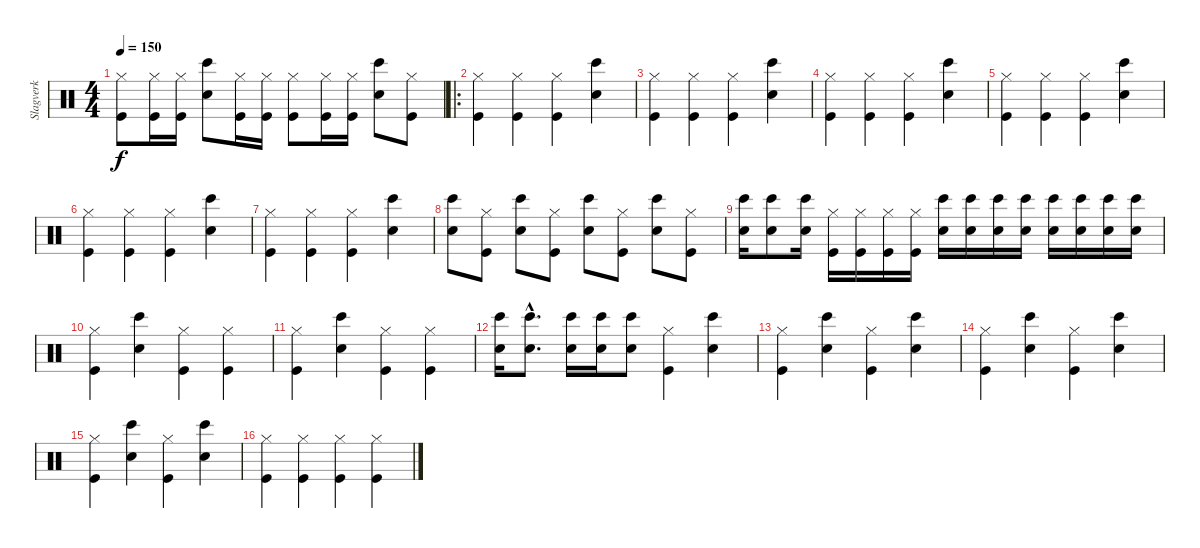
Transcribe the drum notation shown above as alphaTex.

\track ("Slagverk" "Slagverk") {instrument percussion}
\staff {score}
\articulation defaults
\ts (4 4)
\tempo 150
\clef neutral
\ks c
("Hi-Hat (closed)" "Kick (hit)").8{dy f} ("Hi-Hat (closed)" "Kick (hit)").16 ("Hi-Hat (closed)" "Kick (hit)").16 ("Snare (hit) 2" "Bongo High (hit)").8 ("Hi-Hat (closed)" "Kick (hit)").16 ("Hi-Hat (closed)" "Kick (hit)").16 ("Hi-Hat (closed)" "Kick (hit)").8 ("Hi-Hat (closed)" "Kick (hit)").16 ("Hi-Hat (closed)" "Kick (hit)").16 ("Snare (hit) 2" "Bongo High (hit)").8 ("Hi-Hat (closed)" "Kick (hit)").8 |
\ro
("Hi-Hat (closed)" "Kick (hit)").4 ("Hi-Hat (closed)" "Kick (hit)").4 ("Hi-Hat (closed)" "Kick (hit)").4 ("Snare (hit) 2" "Bongo High (hit)").4 |
("Hi-Hat (closed)" "Kick (hit)").4 ("Hi-Hat (closed)" "Kick (hit)").4 ("Hi-Hat (closed)" "Kick (hit)").4 ("Snare (hit) 2" "Bongo High (hit)").4 |
("Hi-Hat (closed)" "Kick (hit)").4 ("Hi-Hat (closed)" "Kick (hit)").4 ("Hi-Hat (closed)" "Kick (hit)").4 ("Snare (hit) 2" "Bongo High (hit)").4 |
("Hi-Hat (closed)" "Kick (hit)").4 ("Hi-Hat (closed)" "Kick (hit)").4 ("Hi-Hat (closed)" "Kick (hit)").4 ("Snare (hit) 2" "Bongo High (hit)").4 |
("Hi-Hat (closed)" "Kick (hit)").4 ("Hi-Hat (closed)" "Kick (hit)").4 ("Hi-Hat (closed)" "Kick (hit)").4 ("Snare (hit) 2" "Bongo High (hit)").4 |
("Hi-Hat (closed)" "Kick (hit)").4 ("Hi-Hat (closed)" "Kick (hit)").4 ("Hi-Hat (closed)" "Kick (hit)").4 ("Snare (hit) 2" "Bongo High (hit)").4 |
("Snare (hit) 2" "Bongo High (hit)").8 ("Hi-Hat (closed)" "Kick (hit)").8 ("Snare (hit) 2" "Bongo High (hit)").8 ("Hi-Hat (closed)" "Kick (hit)").8 ("Snare (hit) 2" "Bongo High (hit)").8 ("Hi-Hat (closed)" "Kick (hit)").8 ("Snare (hit) 2" "Bongo High (hit)").8 ("Hi-Hat (closed)" "Kick (hit)").8 |
("Snare (hit) 2" "Bongo High (hit)").16 ("Snare (hit) 2" "Bongo High (hit)").8 ("Snare (hit) 2" "Bongo High (hit)").16 ("Kick (hit)" "Hi-Hat (closed)").16 ("Kick (hit)" "Hi-Hat (closed)").16 ("Kick (hit)" "Hi-Hat (closed)").16 ("Kick (hit)" "Hi-Hat (closed)").16 ("Snare (hit) 2" "Bongo High (hit)").16 ("Snare (hit) 2" "Bongo High (hit)").16 ("Snare (hit) 2" "Bongo High (hit)").16 ("Snare (hit) 2" "Bongo High (hit)").16 ("Snare (hit) 2" "Bongo High (hit)").16 ("Snare (hit) 2" "Bongo High (hit)").16 ("Snare (hit) 2" "Bongo High (hit)").16 ("Snare (hit) 2" "Bongo High (hit)").16 |
("Hi-Hat (closed)" "Kick (hit)").4 ("Snare (hit) 2" "Bongo High (hit)").4 ("Hi-Hat (closed)" "Kick (hit)").4 ("Hi-Hat (closed)" "Kick (hit)").4 |
("Hi-Hat (closed)" "Kick (hit)").4 ("Bongo High (hit)" "Snare (hit) 2").4 ("Hi-Hat (closed)" "Kick (hit)").4 ("Hi-Hat (closed)" "Kick (hit)").4 |
("Snare (hit) 2" "Bongo High (hit)").16 ("Snare (hit) 2"{hac} "Bongo High (hit)"{hac}).8{d} ("Snare (hit) 2" "Bongo High (hit)").16 ("Snare (hit) 2" "Bongo High (hit)").16 ("Snare (hit) 2" "Bongo High (hit)").8 ("Hi-Hat (closed)" "Kick (hit)").4 ("Snare (hit) 2" "Bongo High (hit)").4 |
("Hi-Hat (closed)" "Kick (hit)").4 ("Snare (hit) 2" "Bongo High (hit)").4 ("Hi-Hat (closed)" "Kick (hit)").4 ("Snare (hit) 2" "Bongo High (hit)").4 |
("Hi-Hat (closed)" "Kick (hit)").4 ("Snare (hit) 2" "Bongo High (hit)").4 ("Hi-Hat (closed)" "Kick (hit)").4 ("Snare (hit) 2" "Bongo High (hit)").4 |
("Hi-Hat (closed)" "Kick (hit)").4 ("Snare (hit) 2" "Bongo High (hit)").4 ("Hi-Hat (closed)" "Kick (hit)").4 ("Snare (hit) 2" "Bongo High (hit)").4 |
("Hi-Hat (closed)" "Kick (hit)").4 ("Hi-Hat (closed)" "Kick (hit)").4 ("Hi-Hat (closed)" "Kick (hit)").4 ("Hi-Hat (closed)" "Kick (hit)").4
